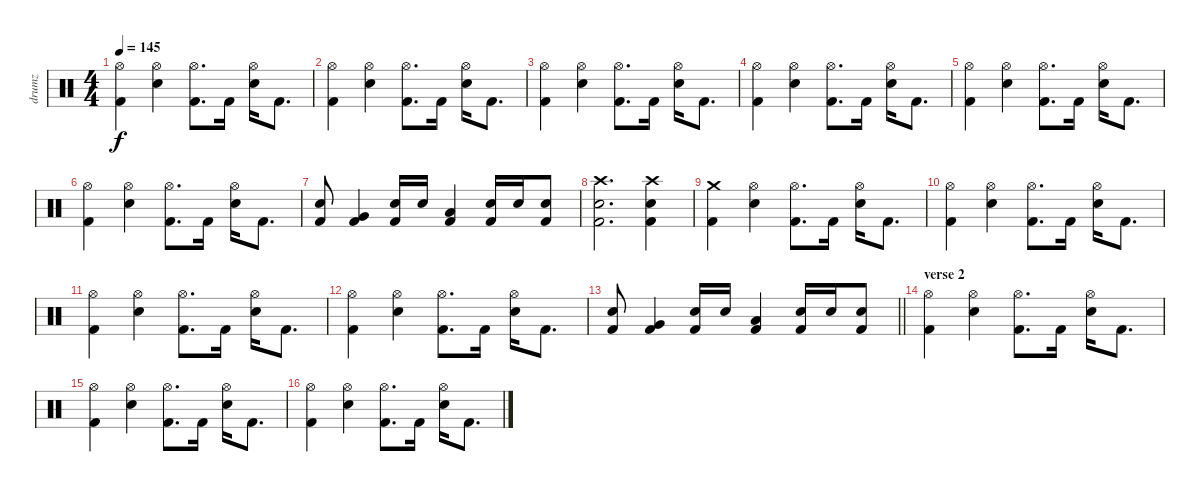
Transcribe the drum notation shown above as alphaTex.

\track ("drumz" "drumz") {instrument percussion}
\staff {score}
\articulation defaults
\ts (4 4)
\tempo 145
\clef neutral
\ks c
("Hi-Hat (open)" "Kick (hit) 2").4{dy f} ("Hi-Hat (open)" "Electric Snare (hit)").4 ("Hi-Hat (open)" "Kick (hit) 2").8{d} "Kick (hit) 2".16 ("Hi-Hat (open)" "Electric Snare (hit)").16 "Kick (hit) 2".8{d} |
("Hi-Hat (open)" "Kick (hit) 2").4 ("Hi-Hat (open)" "Electric Snare (hit)").4 ("Hi-Hat (open)" "Kick (hit) 2").8{d} "Kick (hit) 2".16 ("Hi-Hat (open)" "Electric Snare (hit)").16 "Kick (hit) 2".8{d} |
("Hi-Hat (open)" "Kick (hit) 2").4 ("Hi-Hat (open)" "Electric Snare (hit)").4 ("Hi-Hat (open)" "Kick (hit) 2").8{d} "Kick (hit) 2".16 ("Hi-Hat (open)" "Electric Snare (hit)").16 "Kick (hit) 2".8{d} |
("Hi-Hat (open)" "Kick (hit) 2").4 ("Hi-Hat (open)" "Electric Snare (hit)").4 ("Hi-Hat (open)" "Kick (hit) 2").8{d} "Kick (hit) 2".16 ("Hi-Hat (open)" "Electric Snare (hit)").16 "Kick (hit) 2".8{d} |
("Hi-Hat (open)" "Kick (hit) 2").4 ("Hi-Hat (open)" "Electric Snare (hit)").4 ("Hi-Hat (open)" "Kick (hit) 2").8{d} "Kick (hit) 2".16 ("Hi-Hat (open)" "Electric Snare (hit)").16 "Kick (hit) 2".8{d} |
("Hi-Hat (open)" "Kick (hit) 2").4 ("Hi-Hat (open)" "Electric Snare (hit)").4 ("Hi-Hat (open)" "Kick (hit) 2").8{d} "Kick (hit) 2".16 ("Hi-Hat (open)" "Electric Snare (hit)").16 "Kick (hit) 2".8{d} |
("Electric Snare (hit)" "Kick (hit) 2").8 ("Very Low Tom (hit)" "Kick (hit) 2").4 ("Electric Snare (hit)" "Kick (hit) 2").16 "Electric Snare (hit)".16 ("Low Floor Tom (hit)" "Kick (hit) 2").4 ("Electric Snare (hit)" "Kick (hit) 2").16 "Electric Snare (hit)".16 ("Electric Snare (hit)" "Kick (hit) 2").8 |
("Crash high (hit)" "Electric Snare (hit)" "Kick (hit) 2").2{d} ("Crash high (hit)" "Electric Snare (hit)" "Kick (hit) 2").4 |
("Crash medium (hit)" "Kick (hit) 2").4 ("Hi-Hat (open)" "Electric Snare (hit)").4 ("Hi-Hat (open)" "Kick (hit) 2").8{d} "Kick (hit) 2".16 ("Hi-Hat (open)" "Electric Snare (hit)").16 "Kick (hit) 2".8{d} |
("Hi-Hat (open)" "Kick (hit) 2").4 ("Hi-Hat (open)" "Electric Snare (hit)").4 ("Hi-Hat (open)" "Kick (hit) 2").8{d} "Kick (hit) 2".16 ("Hi-Hat (open)" "Electric Snare (hit)").16 "Kick (hit) 2".8{d} |
("Hi-Hat (open)" "Kick (hit) 2").4 ("Hi-Hat (open)" "Electric Snare (hit)").4 ("Hi-Hat (open)" "Kick (hit) 2").8{d} "Kick (hit) 2".16 ("Hi-Hat (open)" "Electric Snare (hit)").16 "Kick (hit) 2".8{d} |
("Hi-Hat (open)" "Kick (hit) 2").4 ("Hi-Hat (open)" "Electric Snare (hit)").4 ("Hi-Hat (open)" "Kick (hit) 2").8{d} "Kick (hit) 2".16 ("Hi-Hat (open)" "Electric Snare (hit)").16 "Kick (hit) 2".8{d} |
\barLineRight lightlight
("Electric Snare (hit)" "Kick (hit) 2").8 ("Very Low Tom (hit)" "Kick (hit) 2").4 ("Electric Snare (hit)" "Kick (hit) 2").16 "Electric Snare (hit)".16 ("Low Floor Tom (hit)" "Kick (hit) 2").4 ("Electric Snare (hit)" "Kick (hit) 2").16 "Electric Snare (hit)".16 ("Electric Snare (hit)" "Kick (hit) 2").8 |
\section ("" "verse 2")
("Hi-Hat (open)" "Kick (hit) 2").4 ("Hi-Hat (open)" "Electric Snare (hit)").4 ("Hi-Hat (open)" "Kick (hit) 2").8{d} "Kick (hit) 2".16 ("Hi-Hat (open)" "Electric Snare (hit)").16 "Kick (hit) 2".8{d} |
("Hi-Hat (open)" "Kick (hit) 2").4 ("Hi-Hat (open)" "Electric Snare (hit)").4 ("Hi-Hat (open)" "Kick (hit) 2").8{d} "Kick (hit) 2".16 ("Hi-Hat (open)" "Electric Snare (hit)").16 "Kick (hit) 2".8{d} |
("Hi-Hat (open)" "Kick (hit) 2").4 ("Hi-Hat (open)" "Electric Snare (hit)").4 ("Hi-Hat (open)" "Kick (hit) 2").8{d} "Kick (hit) 2".16 ("Hi-Hat (open)" "Electric Snare (hit)").16 "Kick (hit) 2".8{d}
